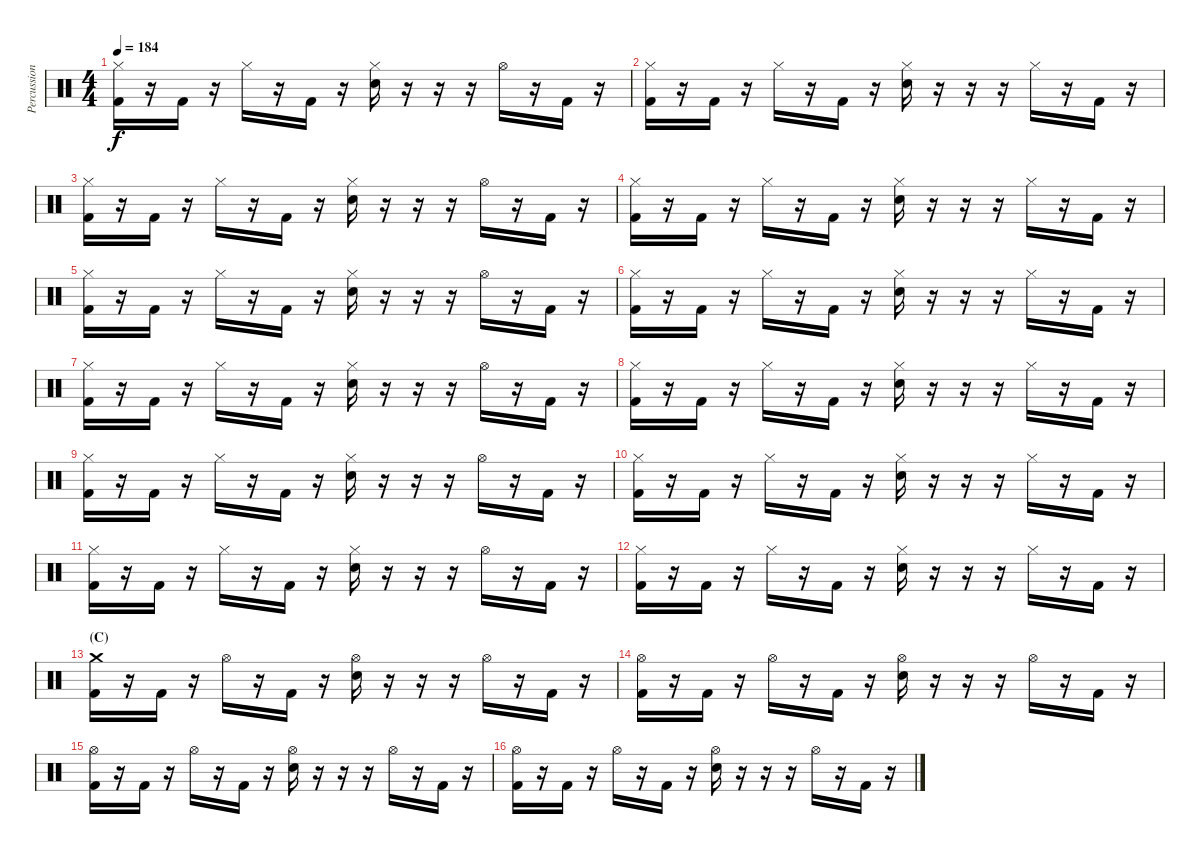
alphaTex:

\track ("Percussion" "Percussion") {instrument percussion}
\staff {score}
\articulation defaults
\ts (4 4)
\tempo 184
\clef neutral
\ks c
("Hi-Hat (closed)" "Kick (hit) 2").16{dy f} r.16 "Kick (hit) 2".16 r.16 "Hi-Hat (closed)".16 r.16 "Kick (hit) 2".16 r.16 ("Hi-Hat (closed)" "Electric Snare (hit)").16 r.16 r.16 r.16 "Hi-Hat (open)".16 r.16 "Kick (hit) 2".16 r.16 |
("Hi-Hat (closed)" "Kick (hit) 2").16 r.16 "Kick (hit) 2".16 r.16 "Hi-Hat (closed)".16 r.16 "Kick (hit) 2".16 r.16 ("Hi-Hat (closed)" "Electric Snare (hit)").16 r.16 r.16 r.16 "Hi-Hat (closed)".16 r.16 "Kick (hit) 2".16 r.16 |
("Hi-Hat (closed)" "Kick (hit) 2").16 r.16 "Kick (hit) 2".16 r.16 "Hi-Hat (closed)".16 r.16 "Kick (hit) 2".16 r.16 ("Hi-Hat (closed)" "Electric Snare (hit)").16 r.16 r.16 r.16 "Hi-Hat (open)".16 r.16 "Kick (hit) 2".16 r.16 |
("Hi-Hat (closed)" "Kick (hit) 2").16 r.16 "Kick (hit) 2".16 r.16 "Hi-Hat (closed)".16 r.16 "Kick (hit) 2".16 r.16 ("Hi-Hat (closed)" "Electric Snare (hit)").16 r.16 r.16 r.16 "Hi-Hat (closed)".16 r.16 "Kick (hit) 2".16 r.16 |
("Hi-Hat (closed)" "Kick (hit) 2").16 r.16 "Kick (hit) 2".16 r.16 "Hi-Hat (closed)".16 r.16 "Kick (hit) 2".16 r.16 ("Hi-Hat (closed)" "Electric Snare (hit)").16 r.16 r.16 r.16 "Hi-Hat (open)".16 r.16 "Kick (hit) 2".16 r.16 |
("Hi-Hat (closed)" "Kick (hit) 2").16 r.16 "Kick (hit) 2".16 r.16 "Hi-Hat (closed)".16 r.16 "Kick (hit) 2".16 r.16 ("Hi-Hat (closed)" "Electric Snare (hit)").16 r.16 r.16 r.16 "Hi-Hat (closed)".16 r.16 "Kick (hit) 2".16 r.16 |
("Hi-Hat (closed)" "Kick (hit) 2").16 r.16 "Kick (hit) 2".16 r.16 "Hi-Hat (closed)".16 r.16 "Kick (hit) 2".16 r.16 ("Hi-Hat (closed)" "Electric Snare (hit)").16 r.16 r.16 r.16 "Hi-Hat (open)".16 r.16 "Kick (hit) 2".16 r.16 |
("Hi-Hat (closed)" "Kick (hit) 2").16 r.16 "Kick (hit) 2".16 r.16 "Hi-Hat (closed)".16 r.16 "Kick (hit) 2".16 r.16 ("Hi-Hat (closed)" "Electric Snare (hit)").16 r.16 r.16 r.16 "Hi-Hat (closed)".16 r.16 "Kick (hit) 2".16 r.16 |
("Hi-Hat (closed)" "Kick (hit) 2").16 r.16 "Kick (hit) 2".16 r.16 "Hi-Hat (closed)".16 r.16 "Kick (hit) 2".16 r.16 ("Hi-Hat (closed)" "Electric Snare (hit)").16 r.16 r.16 r.16 "Hi-Hat (open)".16 r.16 "Kick (hit) 2".16 r.16 |
("Hi-Hat (closed)" "Kick (hit) 2").16 r.16 "Kick (hit) 2".16 r.16 "Hi-Hat (closed)".16 r.16 "Kick (hit) 2".16 r.16 ("Hi-Hat (closed)" "Electric Snare (hit)").16 r.16 r.16 r.16 "Hi-Hat (closed)".16 r.16 "Kick (hit) 2".16 r.16 |
("Hi-Hat (closed)" "Kick (hit) 2").16 r.16 "Kick (hit) 2".16 r.16 "Hi-Hat (closed)".16 r.16 "Kick (hit) 2".16 r.16 ("Hi-Hat (closed)" "Electric Snare (hit)").16 r.16 r.16 r.16 "Hi-Hat (open)".16 r.16 "Kick (hit) 2".16 r.16 |
("Hi-Hat (closed)" "Kick (hit) 2").16 r.16 "Kick (hit) 2".16 r.16 "Hi-Hat (closed)".16 r.16 "Kick (hit) 2".16 r.16 ("Hi-Hat (closed)" "Electric Snare (hit)").16 r.16 r.16 r.16 "Hi-Hat (closed)".16 r.16 "Kick (hit) 2".16 r.16 |
\section ("" "(C)")
("Crash medium (hit)" "Kick (hit) 2").16 r.16 "Kick (hit) 2".16 r.16 "Hi-Hat (open)".16 r.16 "Kick (hit) 2".16 r.16 ("Hi-Hat (open)" "Electric Snare (hit)").16 r.16 r.16 r.16 "Hi-Hat (open)".16 r.16 "Kick (hit) 2".16 r.16 |
("Hi-Hat (open)" "Kick (hit) 2").16 r.16 "Kick (hit) 2".16 r.16 "Hi-Hat (open)".16 r.16 "Kick (hit) 2".16 r.16 ("Hi-Hat (open)" "Electric Snare (hit)").16 r.16 r.16 r.16 "Hi-Hat (open)".16 r.16 "Kick (hit) 2".16 r.16 |
("Hi-Hat (open)" "Kick (hit) 2").16 r.16 "Kick (hit) 2".16 r.16 "Hi-Hat (open)".16 r.16 "Kick (hit) 2".16 r.16 ("Hi-Hat (open)" "Electric Snare (hit)").16 r.16 r.16 r.16 "Hi-Hat (open)".16 r.16 "Kick (hit) 2".16 r.16 |
("Hi-Hat (open)" "Kick (hit) 2").16 r.16 "Kick (hit) 2".16 r.16 "Hi-Hat (open)".16 r.16 "Kick (hit) 2".16 r.16 ("Hi-Hat (open)" "Electric Snare (hit)").16 r.16 r.16 r.16 "Hi-Hat (open)".16 r.16 "Kick (hit) 2".16 r.16
